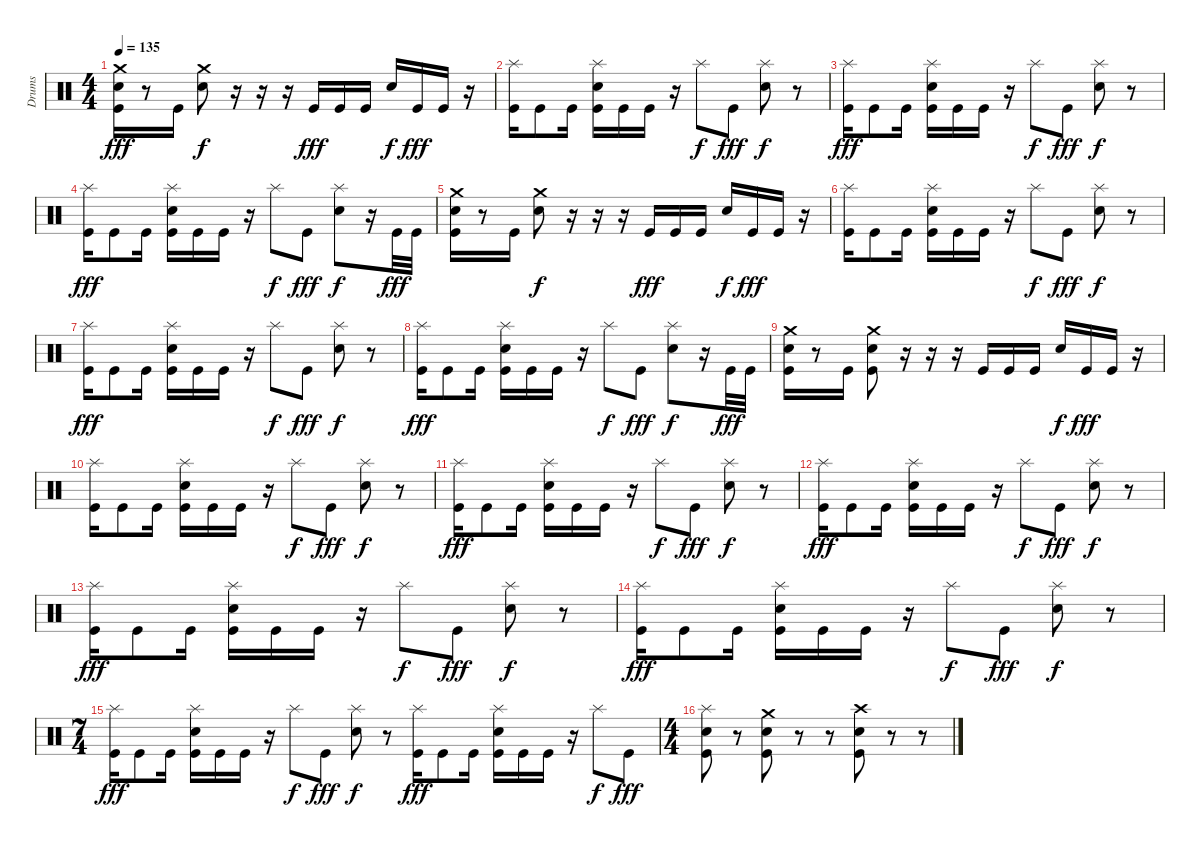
\track ("Drums" "Drums") {instrument percussion}
\staff {score}
\articulation defaults
\ts (4 4)
\tempo 135
\clef neutral
\ks c
("Crash medium (hit)" "Electric Snare (hit)" "Kick (hit)").16{dy fff} r.8 "Kick (hit)".16 ("Crash medium (hit)" "Electric Snare (hit)").8{dy f} r.16 r.16 r.16 "Kick (hit)".16{dy fff} "Kick (hit)".16 "Kick (hit)".16 "Electric Snare (hit)".16{dy f} "Kick (hit)".16{dy fff} "Kick (hit)".16 r.16 |
("Splash (hit)" "Kick (hit)").16 "Kick (hit)".8 "Kick (hit)".16 ("Splash (hit)" "Electric Snare (hit)" "Kick (hit)").16 "Kick (hit)".16 "Kick (hit)".16 r.16 "Splash (hit)".8{dy f} "Kick (hit)".8{dy fff} ("Splash (hit)" "Electric Snare (hit)").8{dy f} r.8 |
("Splash (hit)" "Kick (hit)").16{dy fff} "Kick (hit)".8 "Kick (hit)".16 ("Splash (hit)" "Electric Snare (hit)" "Kick (hit)").16 "Kick (hit)".16 "Kick (hit)".16 r.16 "Splash (hit)".8{dy f} "Kick (hit)".8{dy fff} ("Splash (hit)" "Electric Snare (hit)").8{dy f} r.8 |
("Splash (hit)" "Kick (hit)").16{dy fff} "Kick (hit)".8 "Kick (hit)".16 ("Splash (hit)" "Electric Snare (hit)" "Kick (hit)").16 "Kick (hit)".16 "Kick (hit)".16 r.16 "Splash (hit)".8{dy f} "Kick (hit)".8{dy fff} ("Splash (hit)" "Electric Snare (hit)").8{dy f} r.16 "Kick (hit)".32{dy fff} "Kick (hit)".32 |
("Crash medium (hit)" "Electric Snare (hit)" "Kick (hit)").16 r.8 "Kick (hit)".16 ("Crash medium (hit)" "Electric Snare (hit)").8{dy f} r.16 r.16 r.16 "Kick (hit)".16{dy fff} "Kick (hit)".16 "Kick (hit)".16 "Electric Snare (hit)".16{dy f} "Kick (hit)".16{dy fff} "Kick (hit)".16 r.16 |
("Splash (hit)" "Kick (hit)").16 "Kick (hit)".8 "Kick (hit)".16 ("Splash (hit)" "Electric Snare (hit)" "Kick (hit)").16 "Kick (hit)".16 "Kick (hit)".16 r.16 "Splash (hit)".8{dy f} "Kick (hit)".8{dy fff} ("Splash (hit)" "Electric Snare (hit)").8{dy f} r.8 |
("Splash (hit)" "Kick (hit)").16{dy fff} "Kick (hit)".8 "Kick (hit)".16 ("Splash (hit)" "Electric Snare (hit)" "Kick (hit)").16 "Kick (hit)".16 "Kick (hit)".16 r.16 "Splash (hit)".8{dy f} "Kick (hit)".8{dy fff} ("Splash (hit)" "Electric Snare (hit)").8{dy f} r.8 |
("Splash (hit)" "Kick (hit)").16{dy fff} "Kick (hit)".8 "Kick (hit)".16 ("Splash (hit)" "Electric Snare (hit)" "Kick (hit)").16 "Kick (hit)".16 "Kick (hit)".16 r.16 "Splash (hit)".8{dy f} "Kick (hit)".8{dy fff} ("Splash (hit)" "Electric Snare (hit)").8{dy f} r.16 "Kick (hit)".32{dy fff} "Kick (hit)".32 |
("Crash medium (hit)" "Electric Snare (hit)" "Kick (hit)").16 r.8 "Kick (hit)".16 ("Crash medium (hit)" "Electric Snare (hit)" "Kick (hit)").8 r.16 r.16 r.16 "Kick (hit)".16 "Kick (hit)".16 "Kick (hit)".16 "Electric Snare (hit)".16{dy f} "Kick (hit)".16{dy fff} "Kick (hit)".16 r.16 |
("Splash (hit)" "Kick (hit)").16 "Kick (hit)".8 "Kick (hit)".16 ("Splash (hit)" "Electric Snare (hit)" "Kick (hit)").16 "Kick (hit)".16 "Kick (hit)".16 r.16 "Splash (hit)".8{dy f} "Kick (hit)".8{dy fff} ("Splash (hit)" "Electric Snare (hit)").8{dy f} r.8 |
("Splash (hit)" "Kick (hit)").16{dy fff} "Kick (hit)".8 "Kick (hit)".16 ("Splash (hit)" "Electric Snare (hit)" "Kick (hit)").16 "Kick (hit)".16 "Kick (hit)".16 r.16 "Splash (hit)".8{dy f} "Kick (hit)".8{dy fff} ("Splash (hit)" "Electric Snare (hit)").8{dy f} r.8 |
("Splash (hit)" "Kick (hit)").16{dy fff} "Kick (hit)".8 "Kick (hit)".16 ("Splash (hit)" "Electric Snare (hit)" "Kick (hit)").16 "Kick (hit)".16 "Kick (hit)".16 r.16 "Splash (hit)".8{dy f} "Kick (hit)".8{dy fff} ("Splash (hit)" "Electric Snare (hit)").8{dy f} r.8 |
("Splash (hit)" "Kick (hit)").16{dy fff} "Kick (hit)".8 "Kick (hit)".16 ("Splash (hit)" "Electric Snare (hit)" "Kick (hit)").16 "Kick (hit)".16 "Kick (hit)".16 r.16 "Splash (hit)".8{dy f} "Kick (hit)".8{dy fff} ("Splash (hit)" "Electric Snare (hit)").8{dy f} r.8 |
("Splash (hit)" "Kick (hit)").16{dy fff} "Kick (hit)".8 "Kick (hit)".16 ("Splash (hit)" "Electric Snare (hit)" "Kick (hit)").16 "Kick (hit)".16 "Kick (hit)".16 r.16 "Splash (hit)".8{dy f} "Kick (hit)".8{dy fff} ("Splash (hit)" "Electric Snare (hit)").8{dy f} r.8 |
\ts (7 4)
("Splash (hit)" "Kick (hit)").16{dy fff} "Kick (hit)".8 "Kick (hit)".16 ("Splash (hit)" "Electric Snare (hit)" "Kick (hit)").16 "Kick (hit)".16 "Kick (hit)".16 r.16 "Splash (hit)".8{dy f} "Kick (hit)".8{dy fff} ("Splash (hit)" "Electric Snare (hit)").8{dy f} r.8 ("Splash (hit)" "Kick (hit)").16{dy fff} "Kick (hit)".8 "Kick (hit)".16 ("Splash (hit)" "Electric Snare (hit)" "Kick (hit)").16 "Kick (hit)".16 "Kick (hit)".16 r.16 "Splash (hit)".8{dy f} "Kick (hit)".8{dy fff} |
\ts (4 4)
("Splash (hit)" "Electric Snare (hit)" "Kick (hit)").8 r.8 ("Crash medium (hit)" "Electric Snare (hit)" "Kick (hit)").8 r.8 r.8 ("Crash high (hit)" "Electric Snare (hit)" "Kick (hit)").8 r.8 r.8
